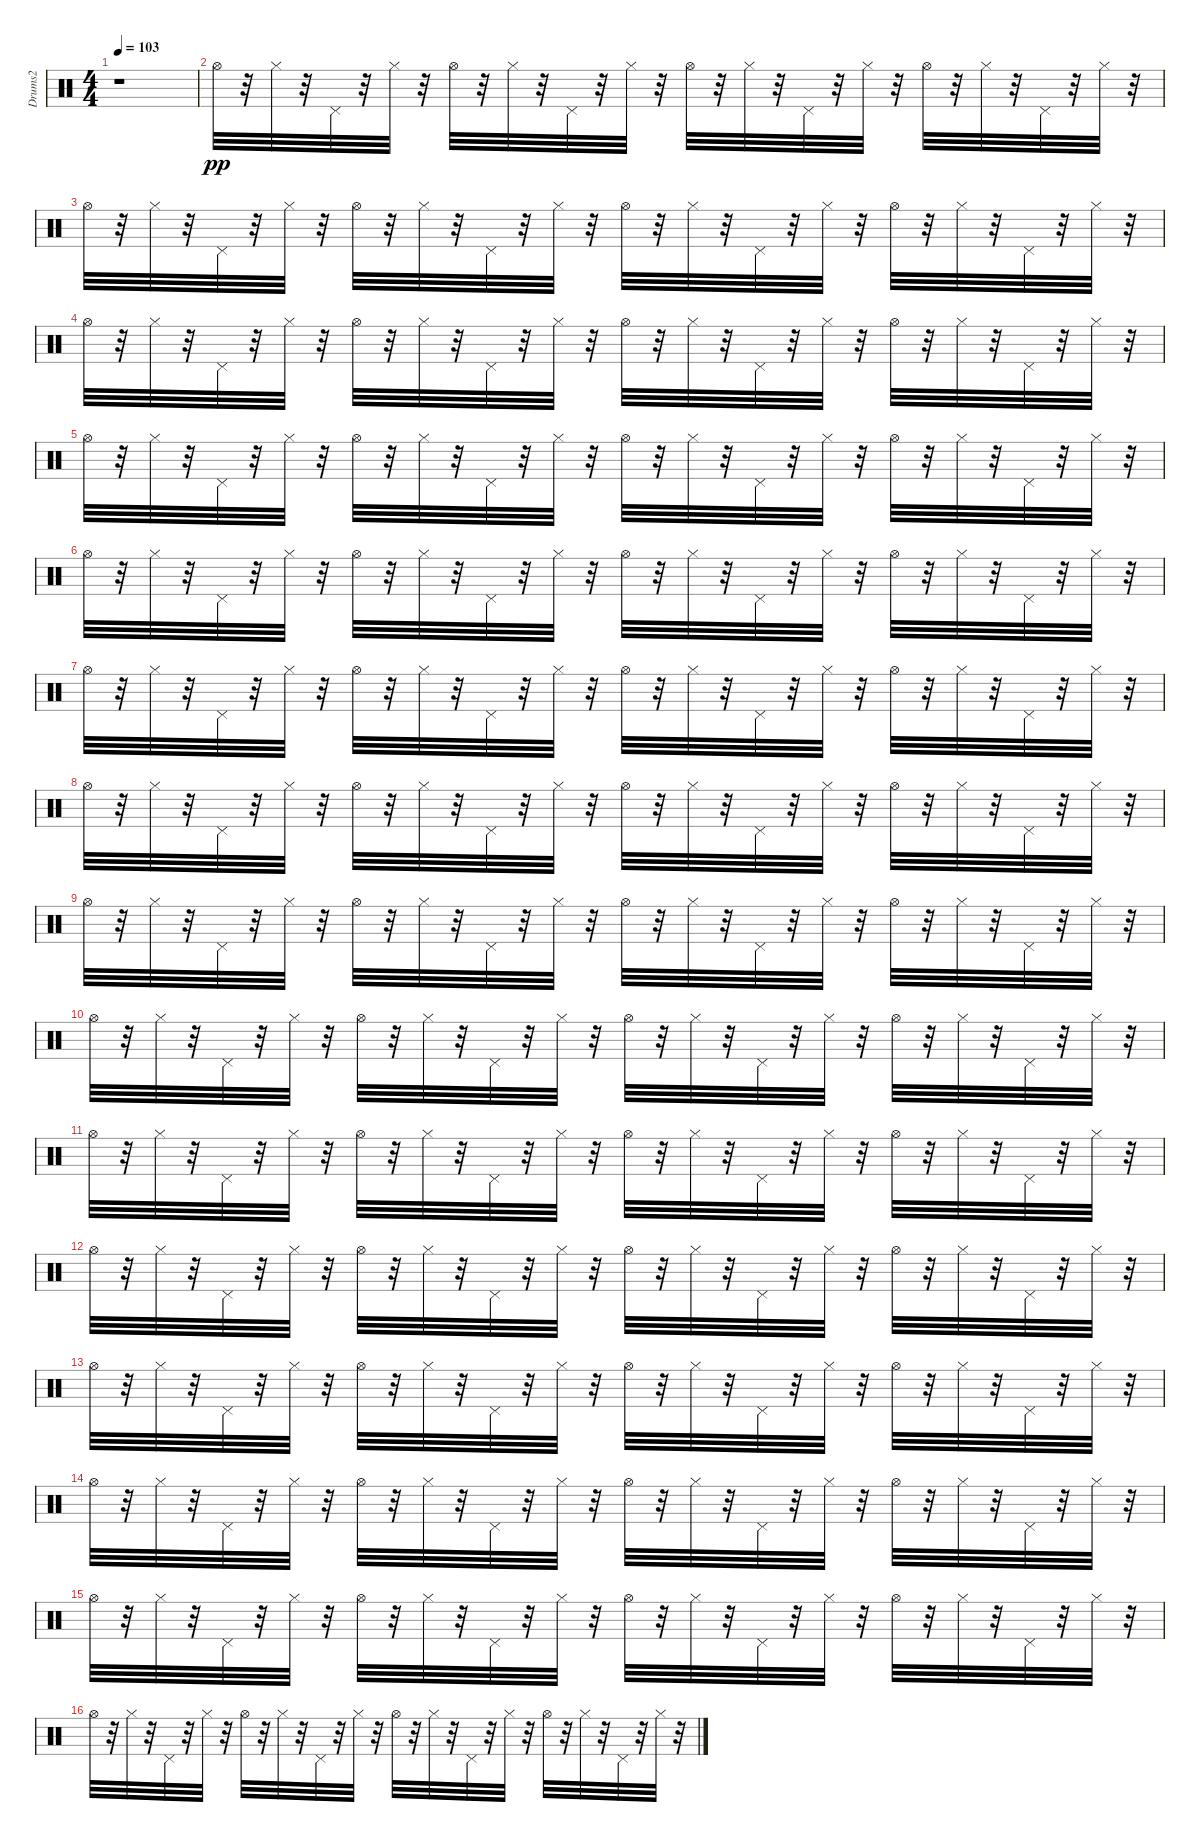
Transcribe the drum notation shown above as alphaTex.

\track ("Drums2" "Drums2") {instrument percussion}
\staff {score}
\articulation defaults
\ts (4 4)
\tempo 103
\clef neutral
\ks c
r.1{dy pp} |
"Hi-Hat (open)".32 r.32 "Hi-Hat (closed)".32 r.32 "Pedal Hi-Hat (hit)".32 r.32 "Hi-Hat (closed)".32 r.32 "Hi-Hat (open)".32 r.32 "Hi-Hat (closed)".32 r.32 "Pedal Hi-Hat (hit)".32 r.32 "Hi-Hat (closed)".32 r.32 "Hi-Hat (open)".32 r.32 "Hi-Hat (closed)".32 r.32 "Pedal Hi-Hat (hit)".32 r.32 "Hi-Hat (closed)".32 r.32 "Hi-Hat (open)".32 r.32 "Hi-Hat (closed)".32 r.32 "Pedal Hi-Hat (hit)".32 r.32 "Hi-Hat (closed)".32 r.32 |
"Hi-Hat (open)".32 r.32 "Hi-Hat (closed)".32 r.32 "Pedal Hi-Hat (hit)".32 r.32 "Hi-Hat (closed)".32 r.32 "Hi-Hat (open)".32 r.32 "Hi-Hat (closed)".32 r.32 "Pedal Hi-Hat (hit)".32 r.32 "Hi-Hat (closed)".32 r.32 "Hi-Hat (open)".32 r.32 "Hi-Hat (closed)".32 r.32 "Pedal Hi-Hat (hit)".32 r.32 "Hi-Hat (closed)".32 r.32 "Hi-Hat (open)".32 r.32 "Hi-Hat (closed)".32 r.32 "Pedal Hi-Hat (hit)".32 r.32 "Hi-Hat (closed)".32 r.32 |
"Hi-Hat (open)".32 r.32 "Hi-Hat (closed)".32 r.32 "Pedal Hi-Hat (hit)".32 r.32 "Hi-Hat (closed)".32 r.32 "Hi-Hat (open)".32 r.32 "Hi-Hat (closed)".32 r.32 "Pedal Hi-Hat (hit)".32 r.32 "Hi-Hat (closed)".32 r.32 "Hi-Hat (open)".32 r.32 "Hi-Hat (closed)".32 r.32 "Pedal Hi-Hat (hit)".32 r.32 "Hi-Hat (closed)".32 r.32 "Hi-Hat (open)".32 r.32 "Hi-Hat (closed)".32 r.32 "Pedal Hi-Hat (hit)".32 r.32 "Hi-Hat (closed)".32 r.32 |
"Hi-Hat (open)".32 r.32 "Hi-Hat (closed)".32 r.32 "Pedal Hi-Hat (hit)".32 r.32 "Hi-Hat (closed)".32 r.32 "Hi-Hat (open)".32 r.32 "Hi-Hat (closed)".32 r.32 "Pedal Hi-Hat (hit)".32 r.32 "Hi-Hat (closed)".32 r.32 "Hi-Hat (open)".32 r.32 "Hi-Hat (closed)".32 r.32 "Pedal Hi-Hat (hit)".32 r.32 "Hi-Hat (closed)".32 r.32 "Hi-Hat (open)".32 r.32 "Hi-Hat (closed)".32 r.32 "Pedal Hi-Hat (hit)".32 r.32 "Hi-Hat (closed)".32 r.32 |
"Hi-Hat (open)".32 r.32 "Hi-Hat (closed)".32 r.32 "Pedal Hi-Hat (hit)".32 r.32 "Hi-Hat (closed)".32 r.32 "Hi-Hat (open)".32 r.32 "Hi-Hat (closed)".32 r.32 "Pedal Hi-Hat (hit)".32 r.32 "Hi-Hat (closed)".32 r.32 "Hi-Hat (open)".32 r.32 "Hi-Hat (closed)".32 r.32 "Pedal Hi-Hat (hit)".32 r.32 "Hi-Hat (closed)".32 r.32 "Hi-Hat (open)".32 r.32 "Hi-Hat (closed)".32 r.32 "Pedal Hi-Hat (hit)".32 r.32 "Hi-Hat (closed)".32 r.32 |
"Hi-Hat (open)".32 r.32 "Hi-Hat (closed)".32 r.32 "Pedal Hi-Hat (hit)".32 r.32 "Hi-Hat (closed)".32 r.32 "Hi-Hat (open)".32 r.32 "Hi-Hat (closed)".32 r.32 "Pedal Hi-Hat (hit)".32 r.32 "Hi-Hat (closed)".32 r.32 "Hi-Hat (open)".32 r.32 "Hi-Hat (closed)".32 r.32 "Pedal Hi-Hat (hit)".32 r.32 "Hi-Hat (closed)".32 r.32 "Hi-Hat (open)".32 r.32 "Hi-Hat (closed)".32 r.32 "Pedal Hi-Hat (hit)".32 r.32 "Hi-Hat (closed)".32 r.32 |
"Hi-Hat (open)".32 r.32 "Hi-Hat (closed)".32 r.32 "Pedal Hi-Hat (hit)".32 r.32 "Hi-Hat (closed)".32 r.32 "Hi-Hat (open)".32 r.32 "Hi-Hat (closed)".32 r.32 "Pedal Hi-Hat (hit)".32 r.32 "Hi-Hat (closed)".32 r.32 "Hi-Hat (open)".32 r.32 "Hi-Hat (closed)".32 r.32 "Pedal Hi-Hat (hit)".32 r.32 "Hi-Hat (closed)".32 r.32 "Hi-Hat (open)".32 r.32 "Hi-Hat (closed)".32 r.32 "Pedal Hi-Hat (hit)".32 r.32 "Hi-Hat (closed)".32 r.32 |
"Hi-Hat (open)".32 r.32 "Hi-Hat (closed)".32 r.32 "Pedal Hi-Hat (hit)".32 r.32 "Hi-Hat (closed)".32 r.32 "Hi-Hat (open)".32 r.32 "Hi-Hat (closed)".32 r.32 "Pedal Hi-Hat (hit)".32 r.32 "Hi-Hat (closed)".32 r.32 "Hi-Hat (open)".32 r.32 "Hi-Hat (closed)".32 r.32 "Pedal Hi-Hat (hit)".32 r.32 "Hi-Hat (closed)".32 r.32 "Hi-Hat (open)".32 r.32 "Hi-Hat (closed)".32 r.32 "Pedal Hi-Hat (hit)".32 r.32 "Hi-Hat (closed)".32 r.32 |
"Hi-Hat (open)".32 r.32 "Hi-Hat (closed)".32 r.32 "Pedal Hi-Hat (hit)".32 r.32 "Hi-Hat (closed)".32 r.32 "Hi-Hat (open)".32 r.32 "Hi-Hat (closed)".32 r.32 "Pedal Hi-Hat (hit)".32 r.32 "Hi-Hat (closed)".32 r.32 "Hi-Hat (open)".32 r.32 "Hi-Hat (closed)".32 r.32 "Pedal Hi-Hat (hit)".32 r.32 "Hi-Hat (closed)".32 r.32 "Hi-Hat (open)".32 r.32 "Hi-Hat (closed)".32 r.32 "Pedal Hi-Hat (hit)".32 r.32 "Hi-Hat (closed)".32 r.32 |
"Hi-Hat (open)".32 r.32 "Hi-Hat (closed)".32 r.32 "Pedal Hi-Hat (hit)".32 r.32 "Hi-Hat (closed)".32 r.32 "Hi-Hat (open)".32 r.32 "Hi-Hat (closed)".32 r.32 "Pedal Hi-Hat (hit)".32 r.32 "Hi-Hat (closed)".32 r.32 "Hi-Hat (open)".32 r.32 "Hi-Hat (closed)".32 r.32 "Pedal Hi-Hat (hit)".32 r.32 "Hi-Hat (closed)".32 r.32 "Hi-Hat (open)".32 r.32 "Hi-Hat (closed)".32 r.32 "Pedal Hi-Hat (hit)".32 r.32 "Hi-Hat (closed)".32 r.32 |
"Hi-Hat (open)".32 r.32 "Hi-Hat (closed)".32 r.32 "Pedal Hi-Hat (hit)".32 r.32 "Hi-Hat (closed)".32 r.32 "Hi-Hat (open)".32 r.32 "Hi-Hat (closed)".32 r.32 "Pedal Hi-Hat (hit)".32 r.32 "Hi-Hat (closed)".32 r.32 "Hi-Hat (open)".32 r.32 "Hi-Hat (closed)".32 r.32 "Pedal Hi-Hat (hit)".32 r.32 "Hi-Hat (closed)".32 r.32 "Hi-Hat (open)".32 r.32 "Hi-Hat (closed)".32 r.32 "Pedal Hi-Hat (hit)".32 r.32 "Hi-Hat (closed)".32 r.32 |
"Hi-Hat (open)".32 r.32 "Hi-Hat (closed)".32 r.32 "Pedal Hi-Hat (hit)".32 r.32 "Hi-Hat (closed)".32 r.32 "Hi-Hat (open)".32 r.32 "Hi-Hat (closed)".32 r.32 "Pedal Hi-Hat (hit)".32 r.32 "Hi-Hat (closed)".32 r.32 "Hi-Hat (open)".32 r.32 "Hi-Hat (closed)".32 r.32 "Pedal Hi-Hat (hit)".32 r.32 "Hi-Hat (closed)".32 r.32 "Hi-Hat (open)".32 r.32 "Hi-Hat (closed)".32 r.32 "Pedal Hi-Hat (hit)".32 r.32 "Hi-Hat (closed)".32 r.32 |
"Hi-Hat (open)".32 r.32 "Hi-Hat (closed)".32 r.32 "Pedal Hi-Hat (hit)".32 r.32 "Hi-Hat (closed)".32 r.32 "Hi-Hat (open)".32 r.32 "Hi-Hat (closed)".32 r.32 "Pedal Hi-Hat (hit)".32 r.32 "Hi-Hat (closed)".32 r.32 "Hi-Hat (open)".32 r.32 "Hi-Hat (closed)".32 r.32 "Pedal Hi-Hat (hit)".32 r.32 "Hi-Hat (closed)".32 r.32 "Hi-Hat (open)".32 r.32 "Hi-Hat (closed)".32 r.32 "Pedal Hi-Hat (hit)".32 r.32 "Hi-Hat (closed)".32 r.32 |
"Hi-Hat (open)".32 r.32 "Hi-Hat (closed)".32 r.32 "Pedal Hi-Hat (hit)".32 r.32 "Hi-Hat (closed)".32 r.32 "Hi-Hat (open)".32 r.32 "Hi-Hat (closed)".32 r.32 "Pedal Hi-Hat (hit)".32 r.32 "Hi-Hat (closed)".32 r.32 "Hi-Hat (open)".32 r.32 "Hi-Hat (closed)".32 r.32 "Pedal Hi-Hat (hit)".32 r.32 "Hi-Hat (closed)".32 r.32 "Hi-Hat (open)".32 r.32 "Hi-Hat (closed)".32 r.32 "Pedal Hi-Hat (hit)".32 r.32 "Hi-Hat (closed)".32 r.32 |
"Hi-Hat (open)".32 r.32 "Hi-Hat (closed)".32 r.32 "Pedal Hi-Hat (hit)".32 r.32 "Hi-Hat (closed)".32 r.32 "Hi-Hat (open)".32 r.32 "Hi-Hat (closed)".32 r.32 "Pedal Hi-Hat (hit)".32 r.32 "Hi-Hat (closed)".32 r.32 "Hi-Hat (open)".32 r.32 "Hi-Hat (closed)".32 r.32 "Pedal Hi-Hat (hit)".32 r.32 "Hi-Hat (closed)".32 r.32 "Hi-Hat (open)".32 r.32 "Hi-Hat (closed)".32 r.32 "Pedal Hi-Hat (hit)".32 r.32 "Hi-Hat (closed)".32 r.32
